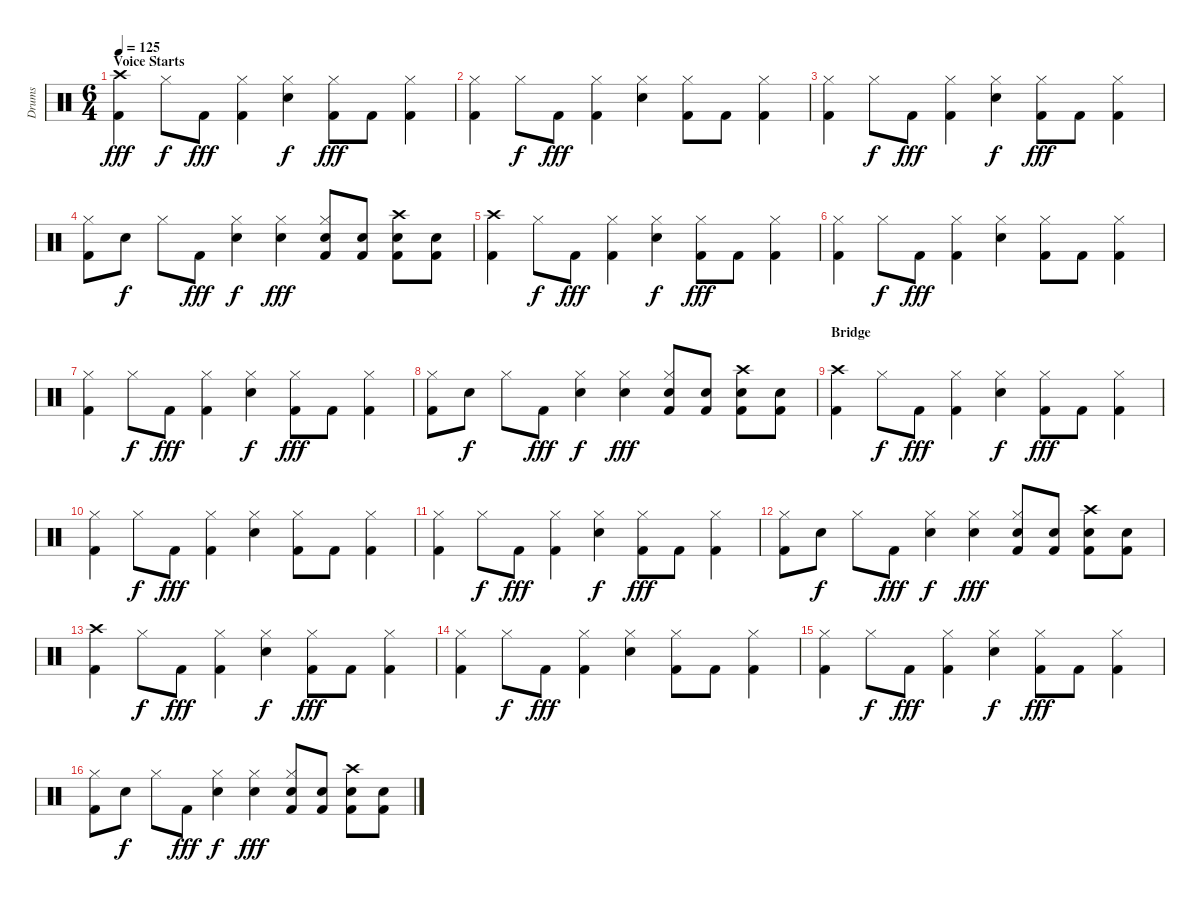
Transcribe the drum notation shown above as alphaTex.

\track ("Drums" "Drums") {instrument percussion}
\staff {score}
\articulation defaults
\ts (6 4)
\section ("" "Voice Starts")
\tempo 125
\clef neutral
\ks c
("Crash high (hit)" "Kick (hit) 2").4{dy fff} "Hi-Hat (closed)".8{dy f} "Kick (hit) 2".8{dy fff} ("Hi-Hat (closed)" "Kick (hit) 2").4 ("Hi-Hat (closed)" "Snare (hit) 2").4{dy f} ("Hi-Hat (closed)" "Kick (hit) 2").8{dy fff} "Kick (hit) 2".8 ("Hi-Hat (closed)" "Kick (hit) 2").4 |
("Hi-Hat (closed)" "Kick (hit) 2").4 "Hi-Hat (closed)".8{dy f} "Kick (hit) 2".8{dy fff} ("Hi-Hat (closed)" "Kick (hit) 2").4 ("Hi-Hat (closed)" "Snare (hit) 2").4 ("Hi-Hat (closed)" "Kick (hit) 2").8 "Kick (hit) 2".8 ("Hi-Hat (closed)" "Kick (hit) 2").4 |
("Hi-Hat (closed)" "Kick (hit) 2").4 "Hi-Hat (closed)".8{dy f} "Kick (hit) 2".8{dy fff} ("Hi-Hat (closed)" "Kick (hit) 2").4 ("Hi-Hat (closed)" "Snare (hit) 2").4{dy f} ("Hi-Hat (closed)" "Kick (hit) 2").8{dy fff} "Kick (hit) 2".8 ("Hi-Hat (closed)" "Kick (hit) 2").4 |
("Hi-Hat (closed)" "Kick (hit) 2").8 "Snare (hit) 2".8{dy f} "Hi-Hat (closed)".8 "Kick (hit) 2".8{dy fff} ("Hi-Hat (closed)" "Snare (hit) 2").4{dy f} ("Hi-Hat (closed)" "Snare (hit) 2").4{dy fff} ("Hi-Hat (closed)" "Snare (hit) 2" "Kick (hit) 2").8 ("Snare (hit) 2" "Kick (hit) 2").8 ("Crash high (hit)" "Snare (hit) 2" "Kick (hit) 2").8 ("Snare (hit) 2" "Kick (hit) 2").8 |
("Crash high (hit)" "Kick (hit) 2").4 "Hi-Hat (closed)".8{dy f} "Kick (hit) 2".8{dy fff} ("Hi-Hat (closed)" "Kick (hit) 2").4 ("Hi-Hat (closed)" "Snare (hit) 2").4{dy f} ("Hi-Hat (closed)" "Kick (hit) 2").8{dy fff} "Kick (hit) 2".8 ("Hi-Hat (closed)" "Kick (hit) 2").4 |
("Hi-Hat (closed)" "Kick (hit) 2").4 "Hi-Hat (closed)".8{dy f} "Kick (hit) 2".8{dy fff} ("Hi-Hat (closed)" "Kick (hit) 2").4 ("Hi-Hat (closed)" "Snare (hit) 2").4 ("Hi-Hat (closed)" "Kick (hit) 2").8 "Kick (hit) 2".8 ("Hi-Hat (closed)" "Kick (hit) 2").4 |
("Hi-Hat (closed)" "Kick (hit) 2").4 "Hi-Hat (closed)".8{dy f} "Kick (hit) 2".8{dy fff} ("Hi-Hat (closed)" "Kick (hit) 2").4 ("Hi-Hat (closed)" "Snare (hit) 2").4{dy f} ("Hi-Hat (closed)" "Kick (hit) 2").8{dy fff} "Kick (hit) 2".8 ("Hi-Hat (closed)" "Kick (hit) 2").4 |
("Hi-Hat (closed)" "Kick (hit) 2").8 "Snare (hit) 2".8{dy f} "Hi-Hat (closed)".8 "Kick (hit) 2".8{dy fff} ("Hi-Hat (closed)" "Snare (hit) 2").4{dy f} ("Hi-Hat (closed)" "Snare (hit) 2").4{dy fff} ("Hi-Hat (closed)" "Snare (hit) 2" "Kick (hit) 2").8 ("Snare (hit) 2" "Kick (hit) 2").8 ("Crash high (hit)" "Snare (hit) 2" "Kick (hit) 2").8 ("Snare (hit) 2" "Kick (hit) 2").8 |
\section ("" "Bridge")
("Crash high (hit)" "Kick (hit) 2").4 "Hi-Hat (closed)".8{dy f} "Kick (hit) 2".8{dy fff} ("Hi-Hat (closed)" "Kick (hit) 2").4 ("Hi-Hat (closed)" "Snare (hit) 2").4{dy f} ("Hi-Hat (closed)" "Kick (hit) 2").8{dy fff} "Kick (hit) 2".8 ("Hi-Hat (closed)" "Kick (hit) 2").4 |
("Hi-Hat (closed)" "Kick (hit) 2").4 "Hi-Hat (closed)".8{dy f} "Kick (hit) 2".8{dy fff} ("Hi-Hat (closed)" "Kick (hit) 2").4 ("Hi-Hat (closed)" "Snare (hit) 2").4 ("Hi-Hat (closed)" "Kick (hit) 2").8 "Kick (hit) 2".8 ("Hi-Hat (closed)" "Kick (hit) 2").4 |
("Hi-Hat (closed)" "Kick (hit) 2").4 "Hi-Hat (closed)".8{dy f} "Kick (hit) 2".8{dy fff} ("Hi-Hat (closed)" "Kick (hit) 2").4 ("Hi-Hat (closed)" "Snare (hit) 2").4{dy f} ("Hi-Hat (closed)" "Kick (hit) 2").8{dy fff} "Kick (hit) 2".8 ("Hi-Hat (closed)" "Kick (hit) 2").4 |
("Hi-Hat (closed)" "Kick (hit) 2").8 "Snare (hit) 2".8{dy f} "Hi-Hat (closed)".8 "Kick (hit) 2".8{dy fff} ("Hi-Hat (closed)" "Snare (hit) 2").4{dy f} ("Hi-Hat (closed)" "Snare (hit) 2").4{dy fff} ("Hi-Hat (closed)" "Snare (hit) 2" "Kick (hit) 2").8 ("Snare (hit) 2" "Kick (hit) 2").8 ("Crash high (hit)" "Snare (hit) 2" "Kick (hit) 2").8 ("Snare (hit) 2" "Kick (hit) 2").8 |
("Crash high (hit)" "Kick (hit) 2").4 "Hi-Hat (closed)".8{dy f} "Kick (hit) 2".8{dy fff} ("Hi-Hat (closed)" "Kick (hit) 2").4 ("Hi-Hat (closed)" "Snare (hit) 2").4{dy f} ("Hi-Hat (closed)" "Kick (hit) 2").8{dy fff} "Kick (hit) 2".8 ("Hi-Hat (closed)" "Kick (hit) 2").4 |
("Hi-Hat (closed)" "Kick (hit) 2").4 "Hi-Hat (closed)".8{dy f} "Kick (hit) 2".8{dy fff} ("Hi-Hat (closed)" "Kick (hit) 2").4 ("Hi-Hat (closed)" "Snare (hit) 2").4 ("Hi-Hat (closed)" "Kick (hit) 2").8 "Kick (hit) 2".8 ("Hi-Hat (closed)" "Kick (hit) 2").4 |
("Hi-Hat (closed)" "Kick (hit) 2").4 "Hi-Hat (closed)".8{dy f} "Kick (hit) 2".8{dy fff} ("Hi-Hat (closed)" "Kick (hit) 2").4 ("Hi-Hat (closed)" "Snare (hit) 2").4{dy f} ("Hi-Hat (closed)" "Kick (hit) 2").8{dy fff} "Kick (hit) 2".8 ("Hi-Hat (closed)" "Kick (hit) 2").4 |
("Hi-Hat (closed)" "Kick (hit) 2").8 "Snare (hit) 2".8{dy f} "Hi-Hat (closed)".8 "Kick (hit) 2".8{dy fff} ("Hi-Hat (closed)" "Snare (hit) 2").4{dy f} ("Hi-Hat (closed)" "Snare (hit) 2").4{dy fff} ("Hi-Hat (closed)" "Snare (hit) 2" "Kick (hit) 2").8 ("Snare (hit) 2" "Kick (hit) 2").8 ("Crash high (hit)" "Snare (hit) 2" "Kick (hit) 2").8 ("Snare (hit) 2" "Kick (hit) 2").8
